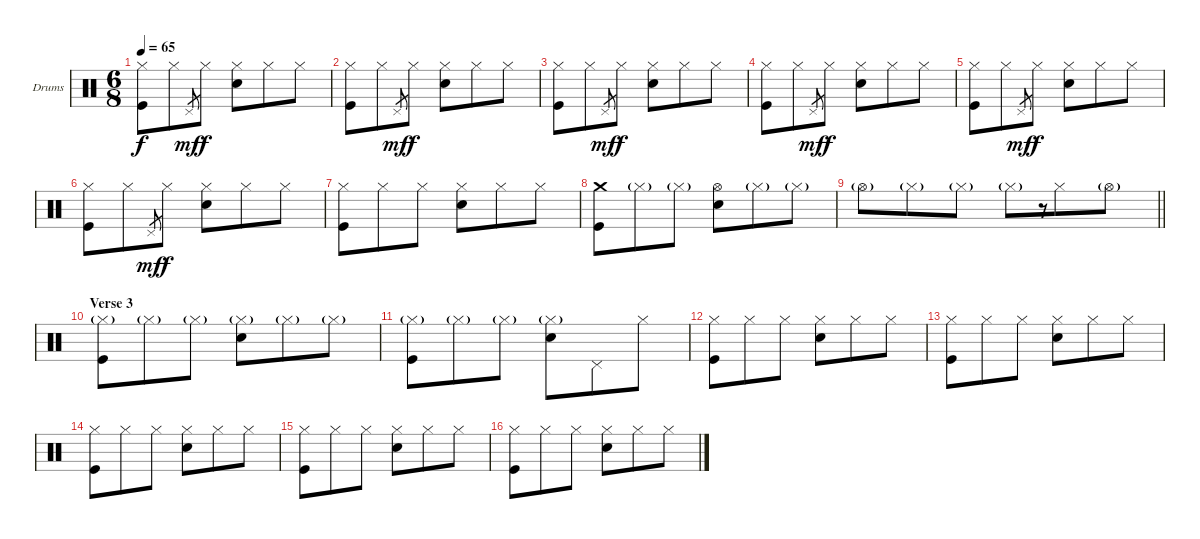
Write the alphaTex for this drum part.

\bracketExtendMode groupsimilarinstruments
\firstSystemTrackNameOrientation horizontal
\otherSystemsTrackNameOrientation horizontal
\track ("Drumkit" "Drums") {instrument percussion}
\staff {score}
\articulation defaults
\ts (6 8)
\tempo 65
\clef neutral
\ks c
("Hi-Hat (closed)" "Kick (hit)").8{dy f} "Hi-Hat (closed)".8 "Pedal Hi-Hat (hit)".8{gr dy mf} "Hi-Hat (closed)".8{dy f} ("Hi-Hat (closed)" "Snare (hit) 2").8 "Hi-Hat (closed)".8 "Hi-Hat (closed)".8 |
("Hi-Hat (closed)" "Kick (hit)").8 "Hi-Hat (closed)".8 "Pedal Hi-Hat (hit)".8{gr dy mf} "Hi-Hat (closed)".8{dy f} ("Hi-Hat (closed)" "Snare (hit) 2").8 "Hi-Hat (closed)".8 "Hi-Hat (closed)".8 |
("Hi-Hat (closed)" "Kick (hit)").8 "Hi-Hat (closed)".8 "Pedal Hi-Hat (hit)".8{gr dy mf} "Hi-Hat (closed)".8{dy f} ("Hi-Hat (closed)" "Snare (hit) 2").8 "Hi-Hat (closed)".8 "Hi-Hat (closed)".8 |
("Hi-Hat (closed)" "Kick (hit)").8 "Hi-Hat (closed)".8 "Pedal Hi-Hat (hit)".8{gr dy mf} "Hi-Hat (closed)".8{dy f} ("Hi-Hat (closed)" "Snare (hit) 2").8 "Hi-Hat (closed)".8 "Hi-Hat (closed)".8 |
("Hi-Hat (closed)" "Kick (hit)").8 "Hi-Hat (closed)".8 "Pedal Hi-Hat (hit)".8{gr dy mf} "Hi-Hat (closed)".8{dy f} ("Hi-Hat (closed)" "Snare (hit) 2").8 "Hi-Hat (closed)".8 "Hi-Hat (closed)".8 |
("Hi-Hat (closed)" "Kick (hit)").8 "Hi-Hat (closed)".8 "Pedal Hi-Hat (hit)".8{gr dy mf} "Hi-Hat (closed)".8{dy f} ("Hi-Hat (closed)" "Snare (hit) 2").8 "Hi-Hat (closed)".8 "Hi-Hat (closed)".8 |
("Hi-Hat (closed)" "Kick (hit)").8 "Hi-Hat (closed)".8 "Hi-Hat (closed)".8 ("Hi-Hat (closed)" "Snare (hit) 2").8 "Hi-Hat (closed)".8 "Hi-Hat (closed)".8 |
("Crash medium (hit)" "Kick (hit)").8 "Hi-Hat (closed)"{g}.8 "Hi-Hat (closed)"{g}.8 ("Hi-Hat (open)" "Snare (hit) 2").8 "Hi-Hat (closed)"{g}.8 "Hi-Hat (closed)"{g}.8 |
\barLineRight lightlight "Hi-Hat (open)"{g}.8 "Hi-Hat (closed)"{g}.8 "Hi-Hat (closed)"{g}.8 "Hi-Hat (closed)"{g}.8
r.8{gr} "Hi-Hat (closed)".8 "Hi-Hat (open)"{g}.8 |
\section ("" "Verse 3")
("Hi-Hat (closed)"{g} "Kick (hit)").8 "Hi-Hat (closed)"{g}.8 "Hi-Hat (closed)"{g}.8 ("Hi-Hat (closed)"{g} "Snare (hit) 2").8 "Hi-Hat (closed)"{g}.8 "Hi-Hat (closed)"{g}.8 |
("Hi-Hat (closed)"{g} "Kick (hit)").8 "Hi-Hat (closed)"{g}.8 "Hi-Hat (closed)"{g}.8 ("Hi-Hat (closed)"{g} "Snare (hit) 2").8 "Pedal Hi-Hat (hit)".8 "Hi-Hat (closed)".8 |
("Hi-Hat (closed)" "Kick (hit)").8 "Hi-Hat (closed)".8 "Hi-Hat (closed)".8 ("Hi-Hat (closed)" "Snare (hit) 2").8 "Hi-Hat (closed)".8 "Hi-Hat (closed)".8 |
("Hi-Hat (closed)" "Kick (hit)").8 "Hi-Hat (closed)".8 "Hi-Hat (closed)".8 ("Hi-Hat (closed)" "Snare (hit) 2").8 "Hi-Hat (closed)".8 "Hi-Hat (closed)".8 |
("Hi-Hat (closed)" "Kick (hit)").8 "Hi-Hat (closed)".8 "Hi-Hat (closed)".8 ("Hi-Hat (closed)" "Snare (hit) 2").8 "Hi-Hat (closed)".8 "Hi-Hat (closed)".8 |
("Hi-Hat (closed)" "Kick (hit)").8 "Hi-Hat (closed)".8 "Hi-Hat (closed)".8 ("Hi-Hat (closed)" "Snare (hit) 2").8 "Hi-Hat (closed)".8 "Hi-Hat (closed)".8 |
("Hi-Hat (closed)" "Kick (hit)").8 "Hi-Hat (closed)".8 "Hi-Hat (closed)".8 ("Hi-Hat (closed)" "Snare (hit) 2").8 "Hi-Hat (closed)".8 "Hi-Hat (closed)".8
